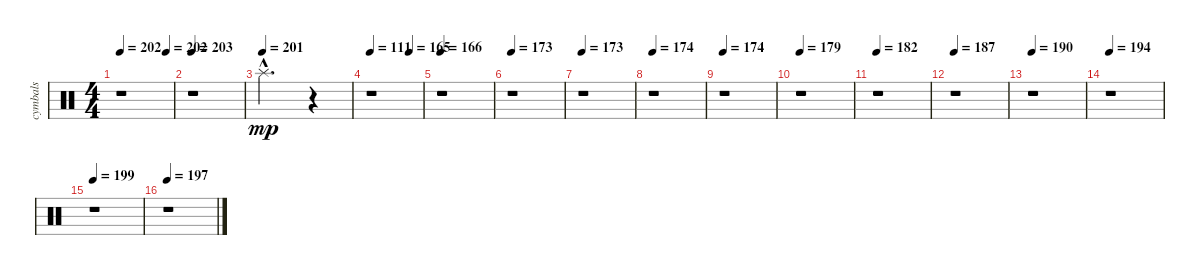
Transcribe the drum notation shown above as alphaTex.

\track ("cymbals" "cymbals") {instrument percussion}
\staff {score}
\articulation defaults
\ts (4 4)
\tempo 202
\tempo (202 0.875)
\clef neutral
\ks c
r.1{dy mp} |
\tempo 203
r.1 |
\tempo (201)
"Splash (hit)"{hac}.2{d} r.4 |
\tempo 111
\tempo (165 0.75)
r.1 |
\tempo 166
r.1 |
\tempo 173
r.1 |
\tempo 173
r.1 |
\tempo 174
r.1 |
\tempo 174
r.1 |
\tempo 179
r.1 |
\tempo 182
r.1 |
\tempo 187
r.1 |
\tempo 190
r.1 |
\tempo 194
r.1 |
\tempo 199
r.1 |
\tempo 197
r.1
